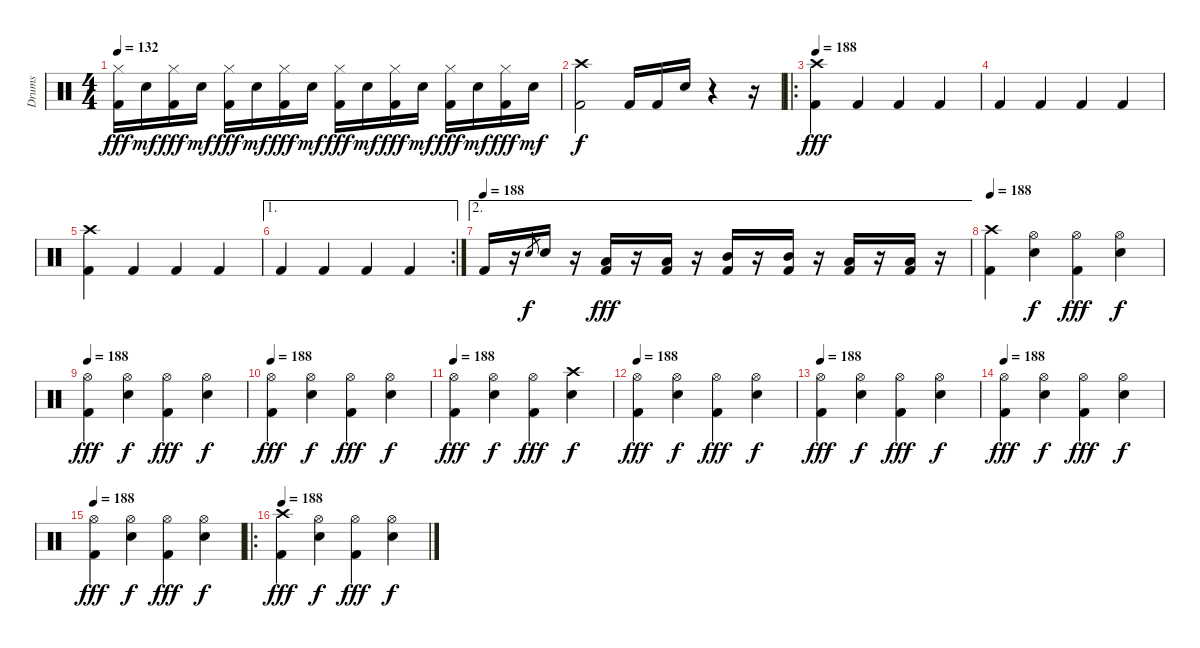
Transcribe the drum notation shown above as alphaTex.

\track ("Drums" "Drums") {instrument percussion}
\staff {score}
\articulation defaults
\ts (4 4)
\tempo 132
\clef neutral
\ks c
("Hi-Hat (closed)" "Kick (hit) 2").16{dy fff} "Snare (hit) 2".16{dy mf} ("Hi-Hat (closed)" "Kick (hit) 2").16{dy fff} "Snare (hit) 2".16{dy mf} ("Hi-Hat (closed)" "Kick (hit) 2").16{dy fff} "Snare (hit) 2".16{dy mf} ("Hi-Hat (closed)" "Kick (hit) 2").16{dy fff} "Snare (hit) 2".16{dy mf} ("Hi-Hat (closed)" "Kick (hit) 2").16{dy fff} "Snare (hit) 2".16{dy mf} ("Hi-Hat (closed)" "Kick (hit) 2").16{dy fff} "Snare (hit) 2".16{dy mf} ("Hi-Hat (closed)" "Kick (hit) 2").16{dy fff} "Snare (hit) 2".16{dy mf} ("Hi-Hat (closed)" "Kick (hit) 2").16{dy fff} "Snare (hit) 2".16{dy mf} |
("Crash high (hit)" "Kick (hit) 2").2{dy f} "Kick (hit) 2".16 "Kick (hit) 2".16 "Snare (hit) 2".16 r.4 r.16 |
\ro
\tempo 188
("Crash high (hit)" "Kick (hit) 2").4{dy fff} "Kick (hit) 2".4 "Kick (hit) 2".4 "Kick (hit) 2".4 |
"Kick (hit) 2".4 "Kick (hit) 2".4 "Kick (hit) 2".4 "Kick (hit) 2".4 |
("Crash high (hit)" "Kick (hit) 2").4 "Kick (hit) 2".4 "Kick (hit) 2".4 "Kick (hit) 2".4 |
\ae 1
\rc 2 "Kick (hit) 2".4 "Kick (hit) 2".4 "Kick (hit) 2".4 "Kick (hit) 2".4
|
\ae 2
\tempo (188)
"Kick (hit) 2".16 r.16 "Snare (hit) 2".8{gr dy f} "Snare (hit) 2".16 r.16 ("Low Tom (hit)" "Kick (hit) 2").16{dy fff} r.16 ("Low Tom (hit)" "Kick (hit) 2").16 r.16 ("Mid Tom (hit)" "Kick (hit) 2").16 r.16 ("Mid Tom (hit)" "Kick (hit) 2").16 r.16 ("Low Tom (hit)" "Kick (hit) 2").16 r.16 ("Low Tom (hit)" "Kick (hit) 2").16 r.16 |
\tempo 188
("Crash high (hit)" "Kick (hit) 2").4 ("Hi-Hat (open)" "Snare (hit) 2").4{dy f} ("Hi-Hat (open)" "Kick (hit) 2").4{dy fff} ("Hi-Hat (open)" "Snare (hit) 2").4{dy f} |
\tempo 188
("Hi-Hat (open)" "Kick (hit) 2").4{dy fff} ("Hi-Hat (open)" "Snare (hit) 2").4{dy f} ("Hi-Hat (open)" "Kick (hit) 2").4{dy fff} ("Hi-Hat (open)" "Snare (hit) 2").4{dy f} |
\tempo 188
("Hi-Hat (open)" "Kick (hit) 2").4{dy fff} ("Hi-Hat (open)" "Snare (hit) 2").4{dy f} ("Hi-Hat (open)" "Kick (hit) 2").4{dy fff} ("Hi-Hat (open)" "Snare (hit) 2").4{dy f} |
\tempo 188
("Hi-Hat (open)" "Kick (hit) 2").4{dy fff} ("Hi-Hat (open)" "Snare (hit) 2").4{dy f} ("Hi-Hat (open)" "Kick (hit) 2").4{dy fff} ("Crash high (hit)" "Snare (hit) 2").4{dy f} |
\tempo 188
("Hi-Hat (open)" "Kick (hit) 2").4{dy fff} ("Hi-Hat (open)" "Snare (hit) 2").4{dy f} ("Hi-Hat (open)" "Kick (hit) 2").4{dy fff} ("Hi-Hat (open)" "Snare (hit) 2").4{dy f} |
\tempo 188
("Hi-Hat (open)" "Kick (hit) 2").4{dy fff} ("Hi-Hat (open)" "Snare (hit) 2").4{dy f} ("Hi-Hat (open)" "Kick (hit) 2").4{dy fff} ("Hi-Hat (open)" "Snare (hit) 2").4{dy f} |
\tempo 188
("Hi-Hat (open)" "Kick (hit) 2").4{dy fff} ("Hi-Hat (open)" "Snare (hit) 2").4{dy f} ("Hi-Hat (open)" "Kick (hit) 2").4{dy fff} ("Hi-Hat (open)" "Snare (hit) 2").4{dy f} |
\tempo 188
("Hi-Hat (open)" "Kick (hit) 2").4{dy fff} ("Hi-Hat (open)" "Snare (hit) 2").4{dy f} ("Hi-Hat (open)" "Kick (hit) 2").4{dy fff} ("Hi-Hat (open)" "Snare (hit) 2").4{dy f} |
\ro
\tempo 188
("Crash high (hit)" "Kick (hit) 2").4{dy fff} ("Hi-Hat (open)" "Snare (hit) 2").4{dy f} ("Hi-Hat (open)" "Kick (hit) 2").4{dy fff} ("Hi-Hat (open)" "Snare (hit) 2").4{dy f}
